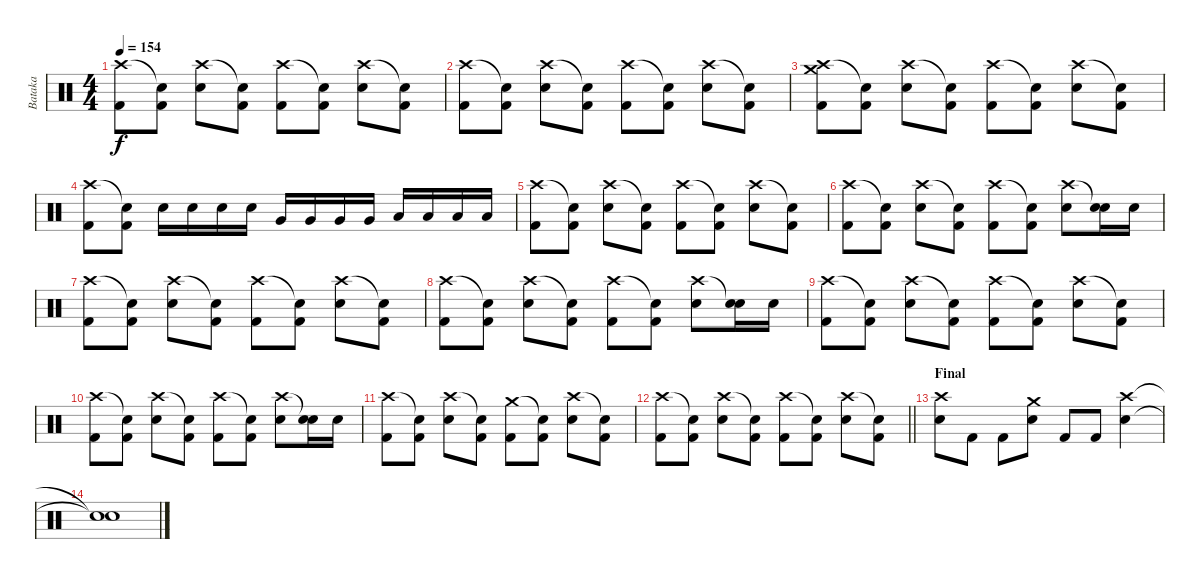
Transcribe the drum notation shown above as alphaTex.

\track ("Bataka" "Bataka") {instrument percussion}
\staff {score}
\articulation defaults
\ts (4 4)
\tempo 154
\clef neutral
\ks c
("Crash high (hit)" "Kick (hit) 2").8{dy f} ("Snare (hit)"{t} "Kick (hit) 2").8 ("Crash high (hit)" "Electric Snare (hit)").8 ("Snare (hit)"{t} "Kick (hit) 2").8 ("Crash high (hit)" "Kick (hit) 2").8 ("Snare (hit)"{t} "Kick (hit) 2").8 ("Crash high (hit)" "Electric Snare (hit)").8 ("Snare (hit)"{t} "Kick (hit) 2").8 |
("Crash high (hit)" "Kick (hit) 2").8 ("Snare (hit)"{t} "Kick (hit) 2").8 ("Crash high (hit)" "Electric Snare (hit)").8 ("Snare (hit)"{t} "Kick (hit) 2").8 ("Crash high (hit)" "Kick (hit) 2").8 ("Snare (hit)"{t} "Kick (hit) 2").8 ("Crash high (hit)" "Electric Snare (hit)").8 ("Snare (hit)"{t} "Kick (hit) 2").8 |
("Crash high (hit)" "Crash medium (hit)" "Kick (hit) 2").8 ("Snare (hit)"{t} "Kick (hit) 2").8 ("Crash high (hit)" "Electric Snare (hit)").8 ("Snare (hit)"{t} "Kick (hit) 2").8 ("Crash high (hit)" "Kick (hit) 2").8 ("Snare (hit)"{t} "Kick (hit) 2").8 ("Crash high (hit)" "Electric Snare (hit)").8 ("Snare (hit)"{t} "Kick (hit) 2").8 |
("Crash high (hit)" "Kick (hit) 2").8 ("Snare (hit)"{t} "Kick (hit) 2").8 "Electric Snare (hit)".16 "Electric Snare (hit)".16 "Electric Snare (hit)".16 "Electric Snare (hit)".16 "Very Low Tom (hit)".16 "Very Low Tom (hit)".16 "Very Low Tom (hit)".16 "Very Low Tom (hit)".16 "Low Floor Tom (hit)".16 "Low Floor Tom (hit)".16 "Low Floor Tom (hit)".16 "Low Floor Tom (hit)".16 |
("Crash high (hit)" "Kick (hit) 2").8 ("Snare (hit)"{t} "Kick (hit) 2").8 ("Crash high (hit)" "Electric Snare (hit)").8 ("Snare (hit)"{t} "Kick (hit) 2").8 ("Crash high (hit)" "Kick (hit) 2").8 ("Snare (hit)"{t} "Kick (hit) 2").8 ("Crash high (hit)" "Electric Snare (hit)").8 ("Snare (hit)"{t} "Kick (hit) 2").8 |
("Crash high (hit)" "Kick (hit) 2").8 ("Snare (hit)"{t} "Kick (hit) 2").8 ("Crash high (hit)" "Electric Snare (hit)").8 ("Snare (hit)"{t} "Kick (hit) 2").8 ("Crash high (hit)" "Kick (hit) 2").8 ("Snare (hit)"{t} "Kick (hit) 2").8 ("Crash high (hit)" "Electric Snare (hit)").8 ("Snare (hit)"{t} "Electric Snare (hit)").16 "Electric Snare (hit)".16 |
("Crash high (hit)" "Kick (hit) 2").8 ("Snare (hit)"{t} "Kick (hit) 2").8 ("Crash high (hit)" "Electric Snare (hit)").8 ("Snare (hit)"{t} "Kick (hit) 2").8 ("Crash high (hit)" "Kick (hit) 2").8 ("Snare (hit)"{t} "Kick (hit) 2").8 ("Crash high (hit)" "Electric Snare (hit)").8 ("Snare (hit)"{t} "Kick (hit) 2").8 |
("Crash high (hit)" "Kick (hit) 2").8 ("Snare (hit)"{t} "Kick (hit) 2").8 ("Crash high (hit)" "Electric Snare (hit)").8 ("Snare (hit)"{t} "Kick (hit) 2").8 ("Crash high (hit)" "Kick (hit) 2").8 ("Snare (hit)"{t} "Kick (hit) 2").8 ("Crash high (hit)" "Electric Snare (hit)").8 ("Snare (hit)"{t} "Electric Snare (hit)").16 "Electric Snare (hit)".16 |
("Crash high (hit)" "Kick (hit) 2").8 ("Snare (hit)"{t} "Kick (hit) 2").8 ("Crash high (hit)" "Electric Snare (hit)").8 ("Snare (hit)"{t} "Kick (hit) 2").8 ("Crash high (hit)" "Kick (hit) 2").8 ("Snare (hit)"{t} "Kick (hit) 2").8 ("Crash high (hit)" "Electric Snare (hit)").8 ("Snare (hit)"{t} "Kick (hit) 2").8 |
("Crash high (hit)" "Kick (hit) 2").8 ("Snare (hit)"{t} "Kick (hit) 2").8 ("Crash high (hit)" "Electric Snare (hit)").8 ("Snare (hit)"{t} "Kick (hit) 2").8 ("Crash high (hit)" "Kick (hit) 2").8 ("Snare (hit)"{t} "Kick (hit) 2").8 ("Crash high (hit)" "Electric Snare (hit)").8 ("Snare (hit)"{t} "Electric Snare (hit)").16 "Electric Snare (hit)".16 |
("Crash high (hit)" "Kick (hit) 2").8 ("Snare (hit)"{t} "Kick (hit) 2").8 ("Crash high (hit)" "Electric Snare (hit)").8 ("Snare (hit)"{t} "Kick (hit) 2").8 ("Crash medium (hit)" "Kick (hit) 2").8 ("Snare (hit)"{t} "Kick (hit) 2").8 ("Crash high (hit)" "Electric Snare (hit)").8 ("Snare (hit)"{t} "Kick (hit) 2").8 |
\barLineRight lightlight
("Crash high (hit)" "Kick (hit) 2").8 ("Snare (hit)"{t} "Kick (hit) 2").8 ("Crash high (hit)" "Electric Snare (hit)").8 ("Snare (hit)"{t} "Kick (hit) 2").8 ("Crash high (hit)" "Kick (hit) 2").8 ("Snare (hit)"{t} "Kick (hit) 2").8 ("Crash high (hit)" "Electric Snare (hit)").8 ("Snare (hit)"{t} "Kick (hit) 2").8 |
\section ("" "Final")
("Crash high (hit)" "Electric Snare (hit)").8 "Kick (hit) 2".8 "Kick (hit) 2".8 ("Crash medium (hit)" "Electric Snare (hit)").8 "Kick (hit) 2".8 "Kick (hit) 2".8 ("Crash high (hit)" "Electric Snare (hit)").4 |
("Snare (hit)"{t} "Snare (hit)"{t}).1
